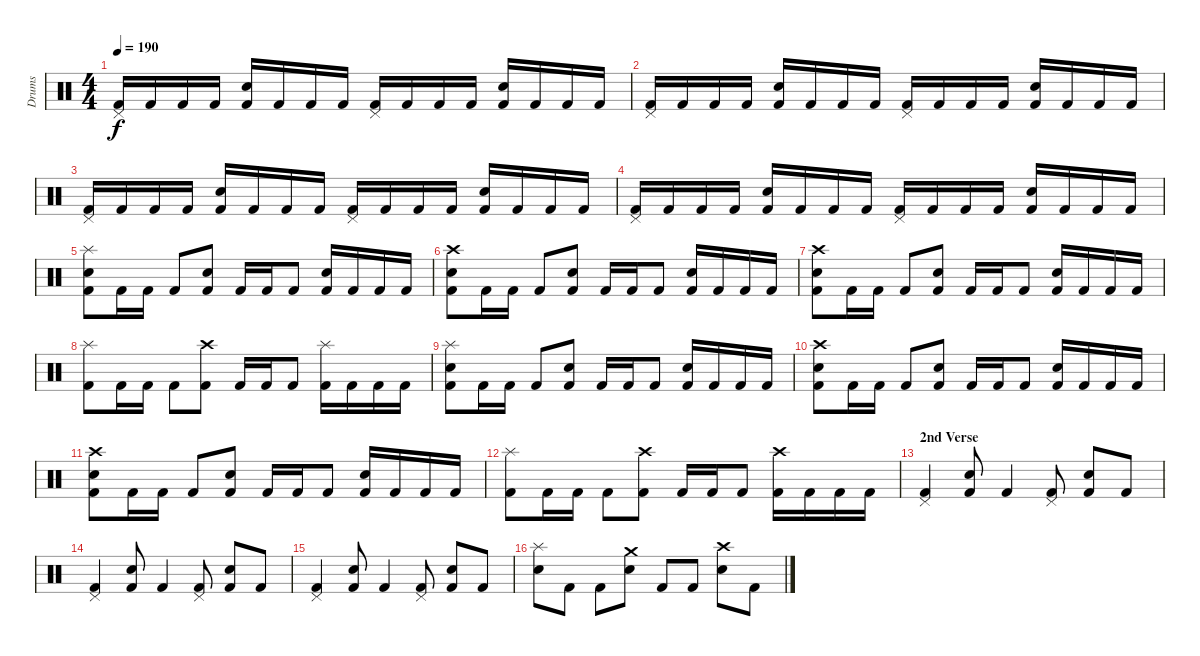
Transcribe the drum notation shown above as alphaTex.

\track ("Drums" "Drums") {instrument percussion}
\staff {score}
\articulation defaults
\ts (4 4)
\tempo 190
\clef neutral
\ks c
("Pedal Hi-Hat (hit)" "Kick (hit) 2").16{dy f} "Kick (hit) 2".16 "Kick (hit) 2".16 "Kick (hit) 2".16 ("Electric Snare (hit)" "Kick (hit) 2").16 "Kick (hit) 2".16 "Kick (hit) 2".16 "Kick (hit) 2".16 ("Pedal Hi-Hat (hit)" "Kick (hit) 2").16 "Kick (hit) 2".16 "Kick (hit) 2".16 "Kick (hit) 2".16 ("Electric Snare (hit)" "Kick (hit) 2").16 "Kick (hit) 2".16 "Kick (hit) 2".16 "Kick (hit) 2".16 |
("Pedal Hi-Hat (hit)" "Kick (hit) 2").16 "Kick (hit) 2".16 "Kick (hit) 2".16 "Kick (hit) 2".16 ("Electric Snare (hit)" "Kick (hit) 2").16 "Kick (hit) 2".16 "Kick (hit) 2".16 "Kick (hit) 2".16 ("Pedal Hi-Hat (hit)" "Kick (hit) 2").16 "Kick (hit) 2".16 "Kick (hit) 2".16 "Kick (hit) 2".16 ("Electric Snare (hit)" "Kick (hit) 2").16 "Kick (hit) 2".16 "Kick (hit) 2".16 "Kick (hit) 2".16 |
("Pedal Hi-Hat (hit)" "Kick (hit) 2").16 "Kick (hit) 2".16 "Kick (hit) 2".16 "Kick (hit) 2".16 ("Electric Snare (hit)" "Kick (hit) 2").16 "Kick (hit) 2".16 "Kick (hit) 2".16 "Kick (hit) 2".16 ("Pedal Hi-Hat (hit)" "Kick (hit) 2").16 "Kick (hit) 2".16 "Kick (hit) 2".16 "Kick (hit) 2".16 ("Electric Snare (hit)" "Kick (hit) 2").16 "Kick (hit) 2".16 "Kick (hit) 2".16 "Kick (hit) 2".16 |
("Pedal Hi-Hat (hit)" "Kick (hit) 2").16 "Kick (hit) 2".16 "Kick (hit) 2".16 "Kick (hit) 2".16 ("Electric Snare (hit)" "Kick (hit) 2").16 "Kick (hit) 2".16 "Kick (hit) 2".16 "Kick (hit) 2".16 ("Pedal Hi-Hat (hit)" "Kick (hit) 2").16 "Kick (hit) 2".16 "Kick (hit) 2".16 "Kick (hit) 2".16 ("Electric Snare (hit)" "Kick (hit) 2").16 "Kick (hit) 2".16 "Kick (hit) 2".16 "Kick (hit) 2".16 |
("Splash (hit)" "Electric Snare (hit)" "Kick (hit) 2").8 "Kick (hit) 2".16 "Kick (hit) 2".16 "Kick (hit) 2".8 ("Electric Snare (hit)" "Kick (hit) 2").8 "Kick (hit) 2".16 "Kick (hit) 2".16 "Kick (hit) 2".8 ("Electric Snare (hit)" "Kick (hit) 2").16 "Kick (hit) 2".16 "Kick (hit) 2".16 "Kick (hit) 2".16 |
("Crash high (hit)" "Electric Snare (hit)" "Kick (hit) 2").8 "Kick (hit) 2".16 "Kick (hit) 2".16 "Kick (hit) 2".8 ("Electric Snare (hit)" "Kick (hit) 2").8 "Kick (hit) 2".16 "Kick (hit) 2".16 "Kick (hit) 2".8 ("Electric Snare (hit)" "Kick (hit) 2").16 "Kick (hit) 2".16 "Kick (hit) 2".16 "Kick (hit) 2".16 |
("Crash high (hit)" "Electric Snare (hit)" "Kick (hit) 2").8 "Kick (hit) 2".16 "Kick (hit) 2".16 "Kick (hit) 2".8 ("Electric Snare (hit)" "Kick (hit) 2").8 "Kick (hit) 2".16 "Kick (hit) 2".16 "Kick (hit) 2".8 ("Electric Snare (hit)" "Kick (hit) 2").16 "Kick (hit) 2".16 "Kick (hit) 2".16 "Kick (hit) 2".16 |
("Splash (hit)" "Kick (hit) 2").8 "Kick (hit) 2".16 "Kick (hit) 2".16 "Kick (hit) 2".8 ("Crash high (hit)" "Kick (hit) 2").8 "Kick (hit) 2".16 "Kick (hit) 2".16 "Kick (hit) 2".8 ("Splash (hit)" "Kick (hit) 2").16 "Kick (hit) 2".16 "Kick (hit) 2".16 "Kick (hit) 2".16 |
("Splash (hit)" "Electric Snare (hit)" "Kick (hit) 2").8 "Kick (hit) 2".16 "Kick (hit) 2".16 "Kick (hit) 2".8 ("Electric Snare (hit)" "Kick (hit) 2").8 "Kick (hit) 2".16 "Kick (hit) 2".16 "Kick (hit) 2".8 ("Electric Snare (hit)" "Kick (hit) 2").16 "Kick (hit) 2".16 "Kick (hit) 2".16 "Kick (hit) 2".16 |
("Crash high (hit)" "Electric Snare (hit)" "Kick (hit) 2").8 "Kick (hit) 2".16 "Kick (hit) 2".16 "Kick (hit) 2".8 ("Electric Snare (hit)" "Kick (hit) 2").8 "Kick (hit) 2".16 "Kick (hit) 2".16 "Kick (hit) 2".8 ("Electric Snare (hit)" "Kick (hit) 2").16 "Kick (hit) 2".16 "Kick (hit) 2".16 "Kick (hit) 2".16 |
("Crash high (hit)" "Electric Snare (hit)" "Kick (hit) 2").8 "Kick (hit) 2".16 "Kick (hit) 2".16 "Kick (hit) 2".8 ("Electric Snare (hit)" "Kick (hit) 2").8 "Kick (hit) 2".16 "Kick (hit) 2".16 "Kick (hit) 2".8 ("Electric Snare (hit)" "Kick (hit) 2").16 "Kick (hit) 2".16 "Kick (hit) 2".16 "Kick (hit) 2".16 |
("Splash (hit)" "Kick (hit) 2").8 "Kick (hit) 2".16 "Kick (hit) 2".16 "Kick (hit) 2".8 ("Crash high (hit)" "Kick (hit) 2").8 "Kick (hit) 2".16 "Kick (hit) 2".16 "Kick (hit) 2".8 ("Crash high (hit)" "Kick (hit) 2").16 "Kick (hit) 2".16 "Kick (hit) 2".16 "Kick (hit) 2".16 |
\section ("" "2nd Verse")
("Pedal Hi-Hat (hit)" "Kick (hit) 2").4 ("Electric Snare (hit)" "Kick (hit) 2").8 "Kick (hit) 2".4 ("Pedal Hi-Hat (hit)" "Kick (hit) 2").8 ("Electric Snare (hit)" "Kick (hit) 2").8 "Kick (hit) 2".8 |
("Pedal Hi-Hat (hit)" "Kick (hit) 2").4 ("Electric Snare (hit)" "Kick (hit) 2").8 "Kick (hit) 2".4 ("Pedal Hi-Hat (hit)" "Kick (hit) 2").8 ("Electric Snare (hit)" "Kick (hit) 2").8 "Kick (hit) 2".8 |
("Pedal Hi-Hat (hit)" "Kick (hit) 2").4 ("Electric Snare (hit)" "Kick (hit) 2").8 "Kick (hit) 2".4 ("Pedal Hi-Hat (hit)" "Kick (hit) 2").8 ("Electric Snare (hit)" "Kick (hit) 2").8 "Kick (hit) 2".8 |
("Splash (hit)" "Electric Snare (hit)").8 "Kick (hit) 2".8 "Kick (hit) 2".8 ("Crash medium (hit)" "Electric Snare (hit)").8 "Kick (hit) 2".8 "Kick (hit) 2".8 ("Crash high (hit)" "Electric Snare (hit)").8 "Kick (hit) 2".8
